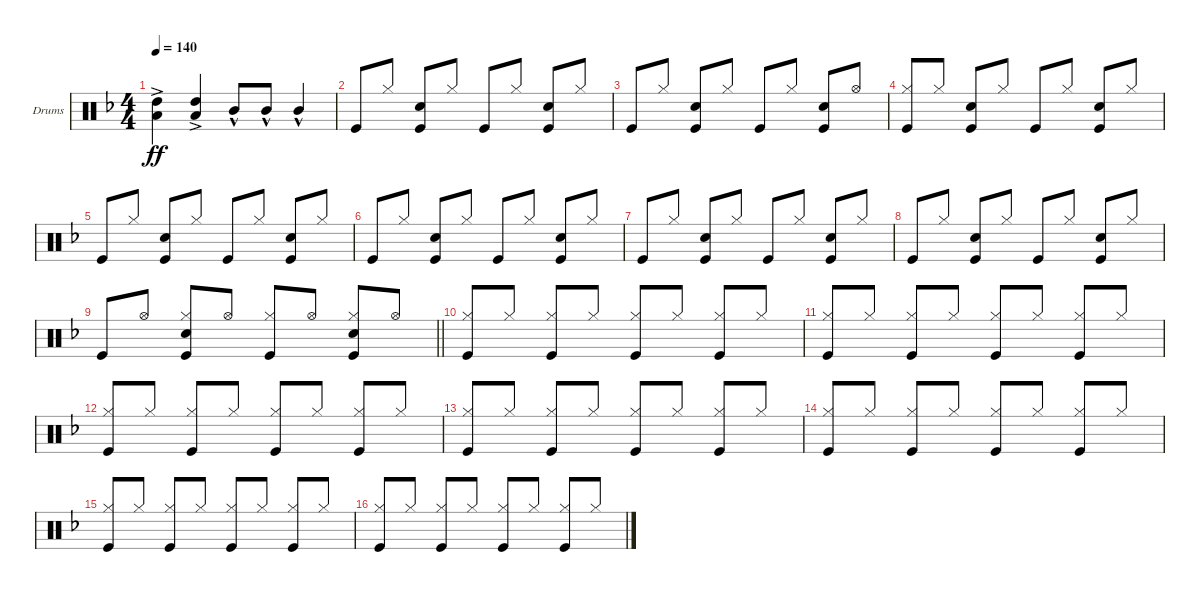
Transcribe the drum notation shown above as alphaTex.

\defaultSystemsLayout 4
\bracketExtendMode groupsimilarinstruments
\firstSystemTrackNameOrientation horizontal
\otherSystemsTrackNameOrientation horizontal
\track ("Drumkit" "Drums") {instrument percussion}
\staff {score}
\articulation defaults
\ts (4 4)
\tempo 140
\clef neutral
\ks f
("Low Tom (hit)"{ac} "High Tom (hit)"{ac}).4{dy ff} ("Low Tom (hit)"{ac} "High Tom (hit)"{ac}).4 "Mid Tom (hit)"{hac}.8{beam invert} "Mid Tom (hit)"{hac}.8 "Mid Tom (hit)"{hac}.4{beam invert} |
"Kick (hit)".8{beam invert} "Hi-Hat (closed)".8 ("Snare (hit) 2" "Kick (hit)").8{beam invert} "Hi-Hat (closed)".8 "Kick (hit)".8{beam invert} "Hi-Hat (closed)".8 ("Snare (hit) 2" "Kick (hit)").8{beam invert} "Hi-Hat (closed)".8 |
"Kick (hit)".8{beam invert} "Hi-Hat (closed)".8 ("Snare (hit) 2" "Kick (hit)").8{beam invert} "Hi-Hat (closed)".8 "Kick (hit)".8{beam invert} "Hi-Hat (closed)".8 ("Snare (hit) 2" "Kick (hit)").8{beam invert} "Hi-Hat (open)".8 |
("Kick (hit)" "Hi-Hat (closed)").8{beam invert} "Hi-Hat (closed)".8 ("Snare (hit) 2" "Kick (hit)").8{beam invert} "Hi-Hat (closed)".8 "Kick (hit)".8{beam invert} "Hi-Hat (closed)".8 ("Snare (hit) 2" "Kick (hit)").8{beam invert} "Hi-Hat (closed)".8 |
"Kick (hit)".8{beam invert} "Hi-Hat (closed)".8 ("Snare (hit) 2" "Kick (hit)").8{beam invert} "Hi-Hat (closed)".8 "Kick (hit)".8{beam invert} "Hi-Hat (closed)".8 ("Snare (hit) 2" "Kick (hit)").8{beam invert} "Hi-Hat (closed)".8 |
"Kick (hit)".8{beam invert} "Hi-Hat (closed)".8 ("Snare (hit) 2" "Kick (hit)").8{beam invert} "Hi-Hat (closed)".8 "Kick (hit)".8{beam invert} "Hi-Hat (closed)".8 ("Snare (hit) 2" "Kick (hit)").8{beam invert} "Hi-Hat (closed)".8 |
"Kick (hit)".8{beam invert} "Hi-Hat (closed)".8 ("Snare (hit) 2" "Kick (hit)").8{beam invert} "Hi-Hat (closed)".8 "Kick (hit)".8{beam invert} "Hi-Hat (closed)".8 ("Snare (hit) 2" "Kick (hit)").8{beam invert} "Hi-Hat (closed)".8 |
"Kick (hit)".8{beam invert} "Hi-Hat (closed)".8 ("Snare (hit) 2" "Kick (hit)").8{beam invert} "Hi-Hat (closed)".8 "Kick (hit)".8{beam invert} "Hi-Hat (closed)".8 ("Snare (hit) 2" "Kick (hit)").8{beam invert} "Hi-Hat (closed)".8 |
\barLineRight lightlight "Kick (hit)".8{beam invert} "Hi-Hat (open)".8
("Snare (hit) 2" "Hi-Hat (closed)" "Kick (hit)").8{beam invert} "Hi-Hat (open)".8 ("Kick (hit)" "Hi-Hat (closed)").8{beam invert} "Hi-Hat (open)".8 ("Snare (hit) 2" "Hi-Hat (closed)" "Kick (hit)").8{beam invert} "Hi-Hat (open)".8 |
("Hi-Hat (closed)" "Kick (hit)").8{beam invert} "Hi-Hat (closed)".8 ("Hi-Hat (closed)" "Kick (hit)").8{beam invert} "Hi-Hat (closed)".8 ("Hi-Hat (closed)" "Kick (hit)").8{beam invert} "Hi-Hat (closed)".8 ("Hi-Hat (closed)" "Kick (hit)").8{beam invert} "Hi-Hat (closed)".8 |
("Hi-Hat (closed)" "Kick (hit)").8{beam invert} "Hi-Hat (closed)".8 ("Hi-Hat (closed)" "Kick (hit)").8{beam invert} "Hi-Hat (closed)".8 ("Hi-Hat (closed)" "Kick (hit)").8{beam invert} "Hi-Hat (closed)".8 ("Hi-Hat (closed)" "Kick (hit)").8{beam invert} "Hi-Hat (closed)".8 |
("Hi-Hat (closed)" "Kick (hit)").8{beam invert} "Hi-Hat (closed)".8 ("Hi-Hat (closed)" "Kick (hit)").8{beam invert} "Hi-Hat (closed)".8 ("Hi-Hat (closed)" "Kick (hit)").8{beam invert} "Hi-Hat (closed)".8 ("Hi-Hat (closed)" "Kick (hit)").8{beam invert} "Hi-Hat (closed)".8 |
("Hi-Hat (closed)" "Kick (hit)").8{beam invert} "Hi-Hat (closed)".8 ("Hi-Hat (closed)" "Kick (hit)").8{beam invert} "Hi-Hat (closed)".8 ("Hi-Hat (closed)" "Kick (hit)").8{beam invert} "Hi-Hat (closed)".8 ("Hi-Hat (closed)" "Kick (hit)").8{beam invert} "Hi-Hat (closed)".8 |
("Hi-Hat (closed)" "Kick (hit)").8{beam invert} "Hi-Hat (closed)".8 ("Hi-Hat (closed)" "Kick (hit)").8{beam invert} "Hi-Hat (closed)".8 ("Hi-Hat (closed)" "Kick (hit)").8{beam invert} "Hi-Hat (closed)".8 ("Hi-Hat (closed)" "Kick (hit)").8{beam invert} "Hi-Hat (closed)".8 |
("Hi-Hat (closed)" "Kick (hit)").8{beam invert} "Hi-Hat (closed)".8 ("Hi-Hat (closed)" "Kick (hit)").8{beam invert} "Hi-Hat (closed)".8 ("Hi-Hat (closed)" "Kick (hit)").8{beam invert} "Hi-Hat (closed)".8 ("Hi-Hat (closed)" "Kick (hit)").8{beam invert} "Hi-Hat (closed)".8 |
("Hi-Hat (closed)" "Kick (hit)").8{beam invert} "Hi-Hat (closed)".8 ("Hi-Hat (closed)" "Kick (hit)").8{beam invert} "Hi-Hat (closed)".8 ("Hi-Hat (closed)" "Kick (hit)").8{beam invert} "Hi-Hat (closed)".8 ("Hi-Hat (closed)" "Kick (hit)").8{beam invert} "Hi-Hat (closed)".8
